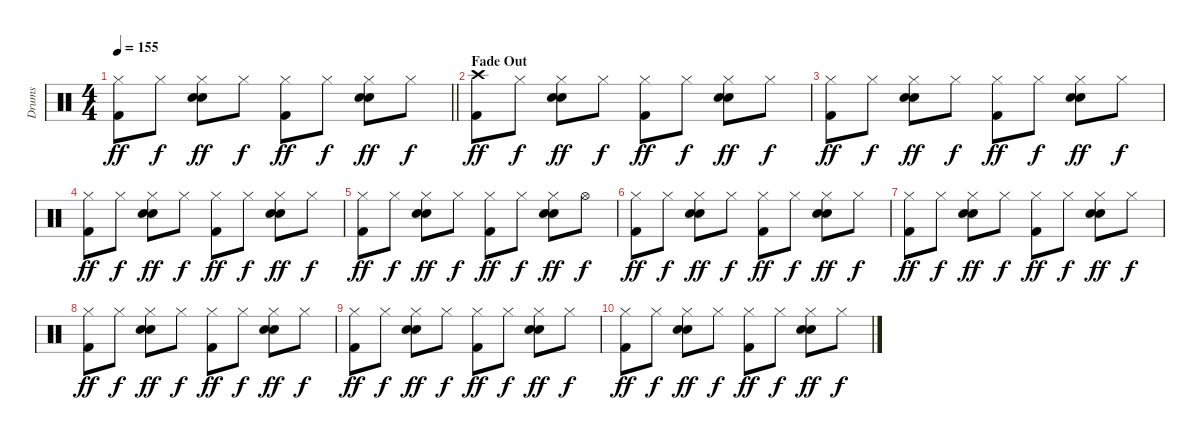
\track ("Drums" "Drums") {instrument percussion}
\staff {score}
\articulation defaults
\ts (4 4)
\tempo 155
\clef neutral
\barLineRight lightlight
\ks c
("Hi-Hat (closed)" "Kick (hit) 2").8{dy ff} "Hi-Hat (closed)".8{dy f} ("Hand Clap (hit)" "Hi-Hat (closed)" "Snare (hit) 2").8{dy ff} "Hi-Hat (closed)".8{dy f} ("Hi-Hat (closed)" "Kick (hit) 2").8{dy ff} "Hi-Hat (closed)".8{dy f} ("Hand Clap (hit)" "Hi-Hat (closed)" "Snare (hit) 2").8{dy ff} "Hi-Hat (closed)".8{dy f} |
\section ("" "Fade Out")
("Crash high (hit)" "Kick (hit) 2").8{dy ff volume 8} "Hi-Hat (closed)".8{dy f} ("Hand Clap (hit)" "Hi-Hat (closed)" "Snare (hit) 2").8{dy ff} "Hi-Hat (closed)".8{dy f} ("Hi-Hat (closed)" "Kick (hit) 2").8{dy ff} "Hi-Hat (closed)".8{dy f} ("Hand Clap (hit)" "Hi-Hat (closed)" "Snare (hit) 2").8{dy ff} "Hi-Hat (closed)".8{dy f} |
("Hi-Hat (closed)" "Kick (hit) 2").8{dy ff} "Hi-Hat (closed)".8{dy f} ("Hand Clap (hit)" "Hi-Hat (closed)" "Snare (hit) 2").8{dy ff} "Hi-Hat (closed)".8{dy f} ("Hi-Hat (closed)" "Kick (hit) 2").8{dy ff} "Hi-Hat (closed)".8{dy f} ("Hand Clap (hit)" "Hi-Hat (closed)" "Snare (hit) 2").8{dy ff} "Hi-Hat (closed)".8{dy f} |
("Hi-Hat (closed)" "Kick (hit) 2").8{dy ff} "Hi-Hat (closed)".8{dy f} ("Hand Clap (hit)" "Hi-Hat (closed)" "Snare (hit) 2").8{dy ff} "Hi-Hat (closed)".8{dy f} ("Hi-Hat (closed)" "Kick (hit) 2").8{dy ff} "Hi-Hat (closed)".8{dy f} ("Hand Clap (hit)" "Hi-Hat (closed)" "Snare (hit) 2").8{dy ff} "Hi-Hat (closed)".8{dy f} |
("Hi-Hat (closed)" "Kick (hit) 2").8{dy ff} "Hi-Hat (closed)".8{dy f} ("Hand Clap (hit)" "Hi-Hat (closed)" "Snare (hit) 2").8{dy ff} "Hi-Hat (closed)".8{dy f} ("Hi-Hat (closed)" "Kick (hit) 2").8{dy ff} "Hi-Hat (closed)".8{dy f} ("Hand Clap (hit)" "Hi-Hat (closed)" "Snare (hit) 2").8{dy ff} "Hi-Hat (open)".8{dy f} |
("Hi-Hat (closed)" "Kick (hit) 2").8{dy ff volume 0} "Hi-Hat (closed)".8{dy f} ("Hand Clap (hit)" "Hi-Hat (closed)" "Snare (hit) 2").8{dy ff} "Hi-Hat (closed)".8{dy f} ("Hi-Hat (closed)" "Kick (hit) 2").8{dy ff} "Hi-Hat (closed)".8{dy f} ("Hand Clap (hit)" "Hi-Hat (closed)" "Snare (hit) 2").8{dy ff} "Hi-Hat (closed)".8{dy f} |
("Hi-Hat (closed)" "Kick (hit) 2").8{dy ff} "Hi-Hat (closed)".8{dy f} ("Hand Clap (hit)" "Hi-Hat (closed)" "Snare (hit) 2").8{dy ff} "Hi-Hat (closed)".8{dy f} ("Hi-Hat (closed)" "Kick (hit) 2").8{dy ff} "Hi-Hat (closed)".8{dy f} ("Hand Clap (hit)" "Hi-Hat (closed)" "Snare (hit) 2").8{dy ff} "Hi-Hat (closed)".8{dy f} |
("Hi-Hat (closed)" "Kick (hit) 2").8{dy ff} "Hi-Hat (closed)".8{dy f} ("Hand Clap (hit)" "Hi-Hat (closed)" "Snare (hit) 2").8{dy ff} "Hi-Hat (closed)".8{dy f} ("Hi-Hat (closed)" "Kick (hit) 2").8{dy ff} "Hi-Hat (closed)".8{dy f} ("Hand Clap (hit)" "Hi-Hat (closed)" "Snare (hit) 2").8{dy ff} "Hi-Hat (closed)".8{dy f} |
("Hi-Hat (closed)" "Kick (hit) 2").8{dy ff} "Hi-Hat (closed)".8{dy f} ("Hand Clap (hit)" "Hi-Hat (closed)" "Snare (hit) 2").8{dy ff} "Hi-Hat (closed)".8{dy f} ("Hi-Hat (closed)" "Kick (hit) 2").8{dy ff} "Hi-Hat (closed)".8{dy f} ("Hand Clap (hit)" "Hi-Hat (closed)" "Snare (hit) 2").8{dy ff} "Hi-Hat (closed)".8{dy f} |
("Hi-Hat (closed)" "Kick (hit) 2").8{dy ff} "Hi-Hat (closed)".8{dy f} ("Hand Clap (hit)" "Hi-Hat (closed)" "Snare (hit) 2").8{dy ff} "Hi-Hat (closed)".8{dy f} ("Hi-Hat (closed)" "Kick (hit) 2").8{dy ff} "Hi-Hat (closed)".8{dy f} ("Hand Clap (hit)" "Hi-Hat (closed)" "Snare (hit) 2").8{dy ff} "Hi-Hat (closed)".8{dy f}
